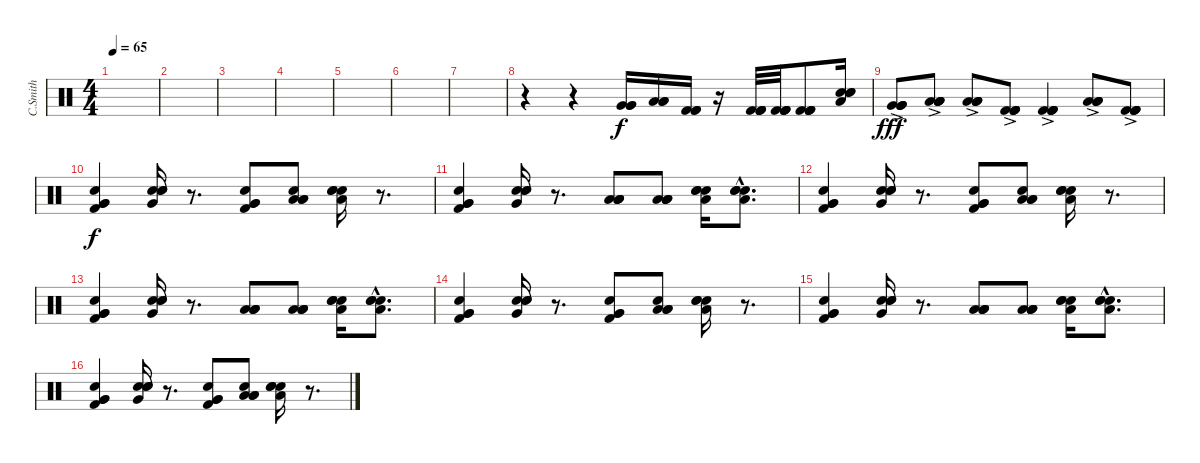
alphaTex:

\track ("C.Smith" "C.Smith") {instrument percussion}
\staff {score}
\articulation defaults
\ts (4 4)
\tempo 65
\clef neutral
\ks c
|
|
|
|
|
|
|
r.4 r.4 ("Very Low Tom (hit)" "Very Low Tom (hit)" "Very Low Tom (hit)").16 ("Low Floor Tom (hit)" "Low Floor Tom (hit)" "Low Floor Tom (hit)").16 ("Kick (hit) 2" "Kick (hit) 2" "Kick (hit) 2").16 r.16 ("Kick (hit) 2" "Kick (hit) 2" "Kick (hit) 2" "Kick (hit) 2").32 ("Kick (hit) 2" "Kick (hit) 2" "Kick (hit) 2" "Kick (hit) 2").32 ("Kick (hit) 2" "Kick (hit) 2" "Kick (hit) 2" "Kick (hit) 2").8 ("Snare (hit) 2" "Snare (hit) 2" "Snare (hit) 2" "Low Floor Tom (hit)").16 |
("Very Low Tom (hit)"{ac} "Very Low Tom (hit)"{ac} "Very Low Tom (hit)"{ac} "Very Low Tom (hit)"{ac}).8{dy fff} ("Low Floor Tom (hit)"{ac} "Low Floor Tom (hit)"{ac} "Low Floor Tom (hit)"{ac} "Low Floor Tom (hit)"{ac}).8 ("Low Floor Tom (hit)"{ac} "Low Floor Tom (hit)"{ac} "Low Floor Tom (hit)"{ac} "Low Floor Tom (hit)"{ac}).8 ("Kick (hit) 2"{ac} "Kick (hit) 2"{ac} "Kick (hit) 2"{ac} "Kick (hit) 2"{ac}).8 ("Kick (hit) 2"{ac} "Kick (hit) 2"{ac} "Kick (hit) 2"{ac} "Kick (hit) 2"{ac}).4 ("Low Floor Tom (hit)"{ac} "Low Floor Tom (hit)"{ac} "Low Floor Tom (hit)"{ac} "Low Floor Tom (hit)"{ac}).8 ("Kick (hit) 2"{ac} "Kick (hit) 2"{ac} "Kick (hit) 2"{ac} "Kick (hit) 2"{ac}).8 |
("Very Low Tom (hit)" "Kick (hit) 2" "Snare (hit) 2" "Very Low Tom (hit)").4{dy f} ("Snare (hit) 2" "Very Low Tom (hit)" "Snare (hit) 2" "Snare (hit) 2").16 r.8{d} ("Very Low Tom (hit)" "Kick (hit) 2" "Snare (hit) 2" "Very Low Tom (hit)").8 ("Low Floor Tom (hit)" "Snare (hit) 2" "Low Floor Tom (hit)" "Low Floor Tom (hit)").8 ("Snare (hit) 2" "Low Floor Tom (hit)" "Snare (hit) 2" "Snare (hit) 2").16 r.8{d} |
("Very Low Tom (hit)" "Kick (hit) 2" "Snare (hit) 2" "Very Low Tom (hit)").4 ("Snare (hit) 2" "Very Low Tom (hit)" "Snare (hit) 2" "Snare (hit) 2").16 r.8{d} ("Low Floor Tom (hit)" "Low Floor Tom (hit)" "Low Floor Tom (hit)" "Low Floor Tom (hit)").8 ("Low Floor Tom (hit)" "Low Floor Tom (hit)" "Low Floor Tom (hit)" "Low Floor Tom (hit)").8 ("Snare (hit) 2" "Snare (hit) 2" "Low Floor Tom (hit)" "Snare (hit) 2").16 ("Snare (hit) 2"{hac} "Snare (hit) 2"{hac} "Low Floor Tom (hit)"{hac} "Snare (hit) 2"{hac}).8{d} |
("Very Low Tom (hit)" "Kick (hit) 2" "Snare (hit) 2" "Very Low Tom (hit)").4 ("Snare (hit) 2" "Very Low Tom (hit)" "Snare (hit) 2" "Snare (hit) 2").16 r.8{d} ("Very Low Tom (hit)" "Kick (hit) 2" "Snare (hit) 2" "Very Low Tom (hit)").8 ("Low Floor Tom (hit)" "Snare (hit) 2" "Low Floor Tom (hit)" "Low Floor Tom (hit)").8 ("Snare (hit) 2" "Low Floor Tom (hit)" "Snare (hit) 2" "Snare (hit) 2").16 r.8{d} |
("Very Low Tom (hit)" "Kick (hit) 2" "Snare (hit) 2" "Very Low Tom (hit)").4 ("Snare (hit) 2" "Very Low Tom (hit)" "Snare (hit) 2" "Snare (hit) 2").16 r.8{d} ("Low Floor Tom (hit)" "Low Floor Tom (hit)" "Low Floor Tom (hit)" "Low Floor Tom (hit)").8 ("Low Floor Tom (hit)" "Low Floor Tom (hit)" "Low Floor Tom (hit)" "Low Floor Tom (hit)").8 ("Snare (hit) 2" "Snare (hit) 2" "Low Floor Tom (hit)" "Snare (hit) 2").16 ("Snare (hit) 2"{hac} "Snare (hit) 2"{hac} "Low Floor Tom (hit)"{hac} "Snare (hit) 2"{hac}).8{d} |
("Very Low Tom (hit)" "Kick (hit) 2" "Snare (hit) 2" "Very Low Tom (hit)").4 ("Snare (hit) 2" "Very Low Tom (hit)" "Snare (hit) 2" "Snare (hit) 2").16 r.8{d} ("Very Low Tom (hit)" "Kick (hit) 2" "Snare (hit) 2" "Very Low Tom (hit)").8 ("Low Floor Tom (hit)" "Snare (hit) 2" "Low Floor Tom (hit)" "Low Floor Tom (hit)").8 ("Snare (hit) 2" "Low Floor Tom (hit)" "Snare (hit) 2" "Snare (hit) 2").16 r.8{d} |
("Very Low Tom (hit)" "Kick (hit) 2" "Snare (hit) 2" "Very Low Tom (hit)").4 ("Snare (hit) 2" "Very Low Tom (hit)" "Snare (hit) 2" "Snare (hit) 2").16 r.8{d} ("Low Floor Tom (hit)" "Low Floor Tom (hit)" "Low Floor Tom (hit)" "Low Floor Tom (hit)").8 ("Low Floor Tom (hit)" "Low Floor Tom (hit)" "Low Floor Tom (hit)" "Low Floor Tom (hit)").8 ("Snare (hit) 2" "Snare (hit) 2" "Low Floor Tom (hit)" "Snare (hit) 2").16 ("Snare (hit) 2"{hac} "Snare (hit) 2"{hac} "Low Floor Tom (hit)"{hac} "Snare (hit) 2"{hac}).8{d} |
("Very Low Tom (hit)" "Kick (hit) 2" "Snare (hit) 2" "Very Low Tom (hit)").4 ("Snare (hit) 2" "Very Low Tom (hit)" "Snare (hit) 2" "Snare (hit) 2").16 r.8{d} ("Very Low Tom (hit)" "Kick (hit) 2" "Snare (hit) 2" "Very Low Tom (hit)").8 ("Low Floor Tom (hit)" "Snare (hit) 2" "Low Floor Tom (hit)" "Low Floor Tom (hit)").8 ("Snare (hit) 2" "Low Floor Tom (hit)" "Snare (hit) 2" "Snare (hit) 2").16 r.8{d}
